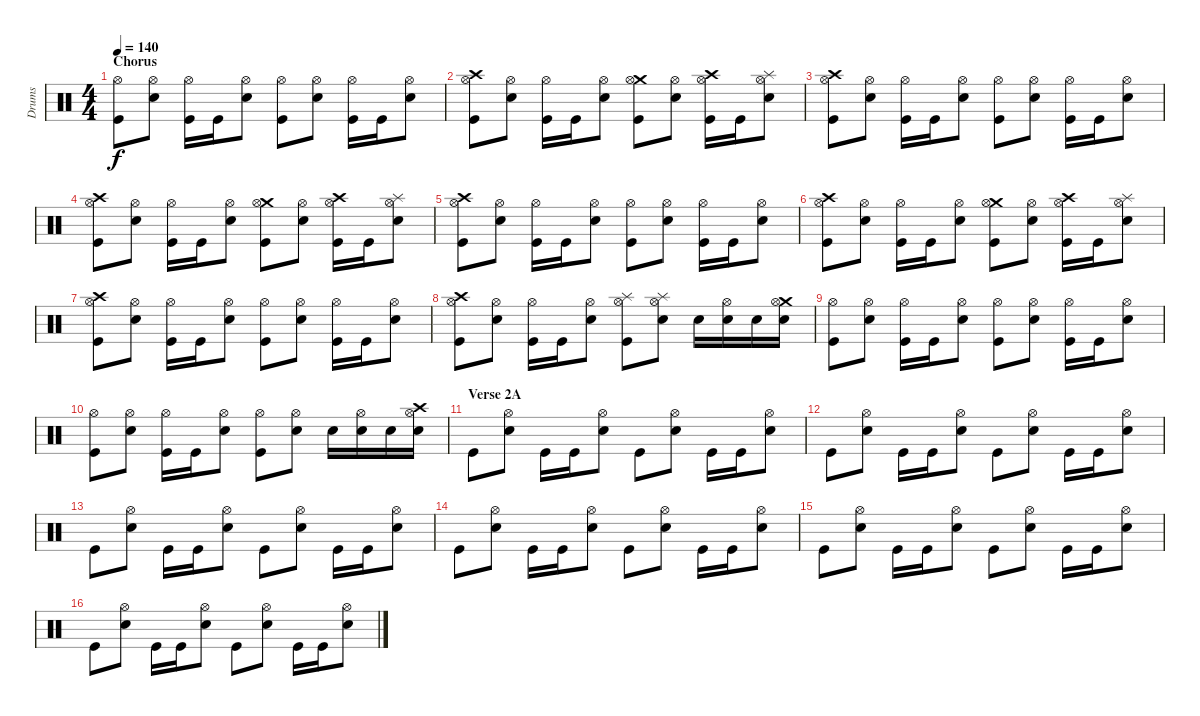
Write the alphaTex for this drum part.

\track ("Drums" "Drums") {instrument percussion}
\staff {score}
\articulation defaults
\ts (4 4)
\section ("" "Chorus")
\tempo 140
\clef neutral
\ks c
("Kick (hit)" "Hi-Hat (open)").8{dy f} ("Snare (hit) 2" "Hi-Hat (open)").8 ("Kick (hit)" "Hi-Hat (open)").16 "Kick (hit)".16 ("Snare (hit) 2" "Hi-Hat (open)").8 ("Kick (hit)" "Hi-Hat (open)").8 ("Snare (hit) 2" "Hi-Hat (open)").8 ("Kick (hit)" "Hi-Hat (open)").16 "Kick (hit)".16 ("Snare (hit) 2" "Hi-Hat (open)").8 |
("Crash high (hit)" "Kick (hit)" "Hi-Hat (open)").8 ("Snare (hit) 2" "Hi-Hat (open)").8 ("Kick (hit)" "Hi-Hat (open)").16 "Kick (hit)".16 ("Snare (hit) 2" "Hi-Hat (open)").8 ("Crash medium (hit)" "Kick (hit)" "Hi-Hat (open)").8 ("Snare (hit) 2" "Hi-Hat (open)").8 ("Crash high (hit)" "Kick (hit)" "Hi-Hat (open)").16 "Kick (hit)".16 ("Splash (hit)" "Snare (hit) 2" "Hi-Hat (open)").8 |
("Crash high (hit)" "Kick (hit)" "Hi-Hat (open)").8 ("Snare (hit) 2" "Hi-Hat (open)").8 ("Kick (hit)" "Hi-Hat (open)").16 "Kick (hit)".16 ("Snare (hit) 2" "Hi-Hat (open)").8 ("Kick (hit)" "Hi-Hat (open)").8 ("Snare (hit) 2" "Hi-Hat (open)").8 ("Kick (hit)" "Hi-Hat (open)").16 "Kick (hit)".16 ("Snare (hit) 2" "Hi-Hat (open)").8 |
("Crash high (hit)" "Kick (hit)" "Hi-Hat (open)").8 ("Snare (hit) 2" "Hi-Hat (open)").8 ("Kick (hit)" "Hi-Hat (open)").16 "Kick (hit)".16 ("Snare (hit) 2" "Hi-Hat (open)").8 ("Crash medium (hit)" "Kick (hit)" "Hi-Hat (open)").8 ("Snare (hit) 2" "Hi-Hat (open)").8 ("Crash high (hit)" "Kick (hit)" "Hi-Hat (open)").16 "Kick (hit)".16 ("Splash (hit)" "Snare (hit) 2" "Hi-Hat (open)").8 |
("Crash high (hit)" "Kick (hit)" "Hi-Hat (open)").8 ("Snare (hit) 2" "Hi-Hat (open)").8 ("Kick (hit)" "Hi-Hat (open)").16 "Kick (hit)".16 ("Snare (hit) 2" "Hi-Hat (open)").8 ("Kick (hit)" "Hi-Hat (open)").8 ("Snare (hit) 2" "Hi-Hat (open)").8 ("Kick (hit)" "Hi-Hat (open)").16 "Kick (hit)".16 ("Snare (hit) 2" "Hi-Hat (open)").8 |
("Crash high (hit)" "Kick (hit)" "Hi-Hat (open)").8 ("Snare (hit) 2" "Hi-Hat (open)").8 ("Kick (hit)" "Hi-Hat (open)").16 "Kick (hit)".16 ("Snare (hit) 2" "Hi-Hat (open)").8 ("Crash medium (hit)" "Kick (hit)" "Hi-Hat (open)").8 ("Snare (hit) 2" "Hi-Hat (open)").8 ("Crash high (hit)" "Kick (hit)" "Hi-Hat (open)").16 "Kick (hit)".16 ("Splash (hit)" "Snare (hit) 2" "Hi-Hat (open)").8 |
("Crash high (hit)" "Kick (hit)" "Hi-Hat (open)").8 ("Snare (hit) 2" "Hi-Hat (open)").8 ("Kick (hit)" "Hi-Hat (open)").16 "Kick (hit)".16 ("Snare (hit) 2" "Hi-Hat (open)").8 ("Kick (hit)" "Hi-Hat (open)").8 ("Snare (hit) 2" "Hi-Hat (open)").8 ("Kick (hit)" "Hi-Hat (open)").16 "Kick (hit)".16 ("Snare (hit) 2" "Hi-Hat (open)").8 |
("Crash high (hit)" "Kick (hit)" "Hi-Hat (open)").8 ("Snare (hit) 2" "Hi-Hat (open)").8 ("Kick (hit)" "Hi-Hat (open)").16 "Kick (hit)".16 ("Snare (hit) 2" "Hi-Hat (open)").8 ("Splash (hit)" "Kick (hit)" "Hi-Hat (open)").8 ("Splash (hit)" "Snare (hit) 2" "Hi-Hat (open)").8 "Electric Snare (hit)".16 ("Electric Snare (hit)" "Hi-Hat (open)").16 "Electric Snare (hit)".16 ("Crash medium (hit)" "Electric Snare (hit)" "Hi-Hat (open)").16 |
("Kick (hit)" "Hi-Hat (open)").8 ("Snare (hit) 2" "Hi-Hat (open)").8 ("Kick (hit)" "Hi-Hat (open)").16 "Kick (hit)".16 ("Snare (hit) 2" "Hi-Hat (open)").8 ("Kick (hit)" "Hi-Hat (open)").8 ("Snare (hit) 2" "Hi-Hat (open)").8 ("Kick (hit)" "Hi-Hat (open)").16 "Kick (hit)".16 ("Snare (hit) 2" "Hi-Hat (open)").8 |
("Kick (hit)" "Hi-Hat (open)").8 ("Snare (hit) 2" "Hi-Hat (open)").8 ("Kick (hit)" "Hi-Hat (open)").16 "Kick (hit)".16 ("Snare (hit) 2" "Hi-Hat (open)").8 ("Kick (hit)" "Hi-Hat (open)").8 ("Snare (hit) 2" "Hi-Hat (open)").8 "Electric Snare (hit)".16 ("Electric Snare (hit)" "Hi-Hat (open)").16 "Electric Snare (hit)".16 ("Crash high (hit)" "Electric Snare (hit)" "Hi-Hat (open)").16 |
\section ("" "Verse 2A")
"Kick (hit)".8 ("Snare (hit) 2" "Hi-Hat (open)").8 "Kick (hit)".16 "Kick (hit)".16 ("Snare (hit) 2" "Hi-Hat (open)").8 "Kick (hit)".8 ("Snare (hit) 2" "Hi-Hat (open)").8 "Kick (hit)".16 "Kick (hit)".16 ("Snare (hit) 2" "Hi-Hat (open)").8 |
"Kick (hit)".8 ("Snare (hit) 2" "Hi-Hat (open)").8 "Kick (hit)".16 "Kick (hit)".16 ("Snare (hit) 2" "Hi-Hat (open)").8 "Kick (hit)".8 ("Snare (hit) 2" "Hi-Hat (open)").8 "Kick (hit)".16 "Kick (hit)".16 ("Snare (hit) 2" "Hi-Hat (open)").8 |
"Kick (hit)".8 ("Snare (hit) 2" "Hi-Hat (open)").8 "Kick (hit)".16 "Kick (hit)".16 ("Snare (hit) 2" "Hi-Hat (open)").8 "Kick (hit)".8 ("Snare (hit) 2" "Hi-Hat (open)").8 "Kick (hit)".16 "Kick (hit)".16 ("Snare (hit) 2" "Hi-Hat (open)").8 |
"Kick (hit)".8 ("Snare (hit) 2" "Hi-Hat (open)").8 "Kick (hit)".16 "Kick (hit)".16 ("Snare (hit) 2" "Hi-Hat (open)").8 "Kick (hit)".8 ("Snare (hit) 2" "Hi-Hat (open)").8 "Kick (hit)".16 "Kick (hit)".16 ("Snare (hit) 2" "Hi-Hat (open)").8 |
"Kick (hit)".8 ("Snare (hit) 2" "Hi-Hat (open)").8 "Kick (hit)".16 "Kick (hit)".16 ("Snare (hit) 2" "Hi-Hat (open)").8 "Kick (hit)".8 ("Snare (hit) 2" "Hi-Hat (open)").8 "Kick (hit)".16 "Kick (hit)".16 ("Snare (hit) 2" "Hi-Hat (open)").8 |
"Kick (hit)".8 ("Snare (hit) 2" "Hi-Hat (open)").8 "Kick (hit)".16 "Kick (hit)".16 ("Snare (hit) 2" "Hi-Hat (open)").8 "Kick (hit)".8 ("Snare (hit) 2" "Hi-Hat (open)").8 "Kick (hit)".16 "Kick (hit)".16 ("Snare (hit) 2" "Hi-Hat (open)").8
